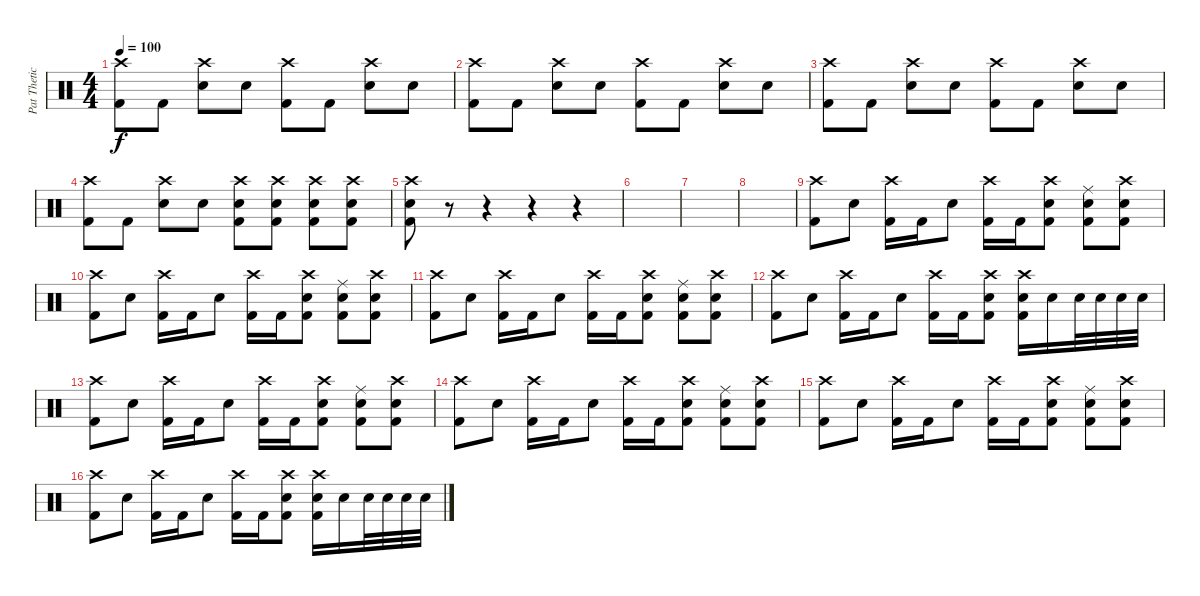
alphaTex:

\track ("Pat Thetic" "Pat Thetic") {instrument percussion}
\staff {score}
\articulation defaults
\ts (4 4)
\tempo 100
\clef neutral
\ks c
("Crash high (hit)" "Kick (hit) 2").8{dy f} "Kick (hit) 2".8 ("Crash high (hit)" "Snare (hit) 2").8 "Snare (hit) 2".8 ("Crash high (hit)" "Kick (hit) 2").8 "Kick (hit) 2".8 ("Crash high (hit)" "Snare (hit) 2").8 "Snare (hit) 2".8 |
("Crash high (hit)" "Kick (hit) 2").8 "Kick (hit) 2".8 ("Crash high (hit)" "Snare (hit) 2").8 "Snare (hit) 2".8 ("Crash high (hit)" "Kick (hit) 2").8 "Kick (hit) 2".8 ("Crash high (hit)" "Snare (hit) 2").8 "Snare (hit) 2".8 |
("Crash high (hit)" "Kick (hit) 2").8 "Kick (hit) 2".8 ("Crash high (hit)" "Snare (hit) 2").8 "Snare (hit) 2".8 ("Crash high (hit)" "Kick (hit) 2").8 "Kick (hit) 2".8 ("Crash high (hit)" "Snare (hit) 2").8 "Snare (hit) 2".8 |
("Crash high (hit)" "Kick (hit) 2").8 "Kick (hit) 2".8 ("Crash high (hit)" "Snare (hit) 2").8 "Snare (hit) 2".8 ("Snare (hit) 2" "Crash high (hit)" "Kick (hit) 2").8 ("Snare (hit) 2" "Crash high (hit)" "Kick (hit) 2").8 ("Kick (hit) 2" "Crash high (hit)" "Snare (hit) 2").8 ("Kick (hit) 2" "Crash high (hit)" "Snare (hit) 2").8 |
("Kick (hit) 2" "Crash high (hit)" "Snare (hit) 2").8 r.8 r.4 r.4 r.4 |
|
|
|
("Crash high (hit)" "Kick (hit) 2").8 "Snare (hit) 2".8 ("Crash high (hit)" "Kick (hit) 2").16 "Kick (hit) 2".16 "Snare (hit) 2".8 ("Crash high (hit)" "Kick (hit) 2").16 "Kick (hit) 2".16 ("Kick (hit) 2" "Crash high (hit)" "Snare (hit) 2").8 ("Kick (hit) 2" "Ride (middle)" "Snare (hit) 2").8 ("Kick (hit) 2" "Crash high (hit)" "Snare (hit) 2").8 |
("Crash high (hit)" "Kick (hit) 2").8 "Snare (hit) 2".8 ("Crash high (hit)" "Kick (hit) 2").16 "Kick (hit) 2".16 "Snare (hit) 2".8 ("Crash high (hit)" "Kick (hit) 2").16 "Kick (hit) 2".16 ("Kick (hit) 2" "Crash high (hit)" "Snare (hit) 2").8 ("Kick (hit) 2" "Ride (middle)" "Snare (hit) 2").8 ("Kick (hit) 2" "Crash high (hit)" "Snare (hit) 2").8 |
("Crash high (hit)" "Kick (hit) 2").8 "Snare (hit) 2".8 ("Crash high (hit)" "Kick (hit) 2").16 "Kick (hit) 2".16 "Snare (hit) 2".8 ("Crash high (hit)" "Kick (hit) 2").16 "Kick (hit) 2".16 ("Kick (hit) 2" "Crash high (hit)" "Snare (hit) 2").8 ("Kick (hit) 2" "Ride (middle)" "Snare (hit) 2").8 ("Kick (hit) 2" "Crash high (hit)" "Snare (hit) 2").8 |
("Crash high (hit)" "Kick (hit) 2").8 "Snare (hit) 2".8 ("Crash high (hit)" "Kick (hit) 2").16 "Kick (hit) 2".16 "Snare (hit) 2".8 ("Crash high (hit)" "Kick (hit) 2").16 "Kick (hit) 2".16 ("Kick (hit) 2" "Crash high (hit)" "Snare (hit) 2").8 ("Kick (hit) 2" "Crash high (hit)" "Snare (hit) 2").16 "Snare (hit) 2".16 "Snare (hit) 2".32 "Snare (hit) 2".32 "Snare (hit) 2".32 "Snare (hit) 2".32 |
("Crash high (hit)" "Kick (hit) 2").8 "Snare (hit) 2".8 ("Crash high (hit)" "Kick (hit) 2").16 "Kick (hit) 2".16 "Snare (hit) 2".8 ("Crash high (hit)" "Kick (hit) 2").16 "Kick (hit) 2".16 ("Kick (hit) 2" "Crash high (hit)" "Snare (hit) 2").8 ("Kick (hit) 2" "Ride (middle)" "Snare (hit) 2").8 ("Kick (hit) 2" "Crash high (hit)" "Snare (hit) 2").8 |
("Crash high (hit)" "Kick (hit) 2").8 "Snare (hit) 2".8 ("Crash high (hit)" "Kick (hit) 2").16 "Kick (hit) 2".16 "Snare (hit) 2".8 ("Crash high (hit)" "Kick (hit) 2").16 "Kick (hit) 2".16 ("Kick (hit) 2" "Crash high (hit)" "Snare (hit) 2").8 ("Kick (hit) 2" "Ride (middle)" "Snare (hit) 2").8 ("Kick (hit) 2" "Crash high (hit)" "Snare (hit) 2").8 |
("Crash high (hit)" "Kick (hit) 2").8 "Snare (hit) 2".8 ("Crash high (hit)" "Kick (hit) 2").16 "Kick (hit) 2".16 "Snare (hit) 2".8 ("Crash high (hit)" "Kick (hit) 2").16 "Kick (hit) 2".16 ("Kick (hit) 2" "Crash high (hit)" "Snare (hit) 2").8 ("Kick (hit) 2" "Ride (middle)" "Snare (hit) 2").8 ("Kick (hit) 2" "Crash high (hit)" "Snare (hit) 2").8 |
("Crash high (hit)" "Kick (hit) 2").8 "Snare (hit) 2".8 ("Crash high (hit)" "Kick (hit) 2").16 "Kick (hit) 2".16 "Snare (hit) 2".8 ("Crash high (hit)" "Kick (hit) 2").16 "Kick (hit) 2".16 ("Kick (hit) 2" "Crash high (hit)" "Snare (hit) 2").8 ("Kick (hit) 2" "Crash high (hit)" "Snare (hit) 2").16 "Snare (hit) 2".16 "Snare (hit) 2".32 "Snare (hit) 2".32 "Snare (hit) 2".32 "Snare (hit) 2".32
